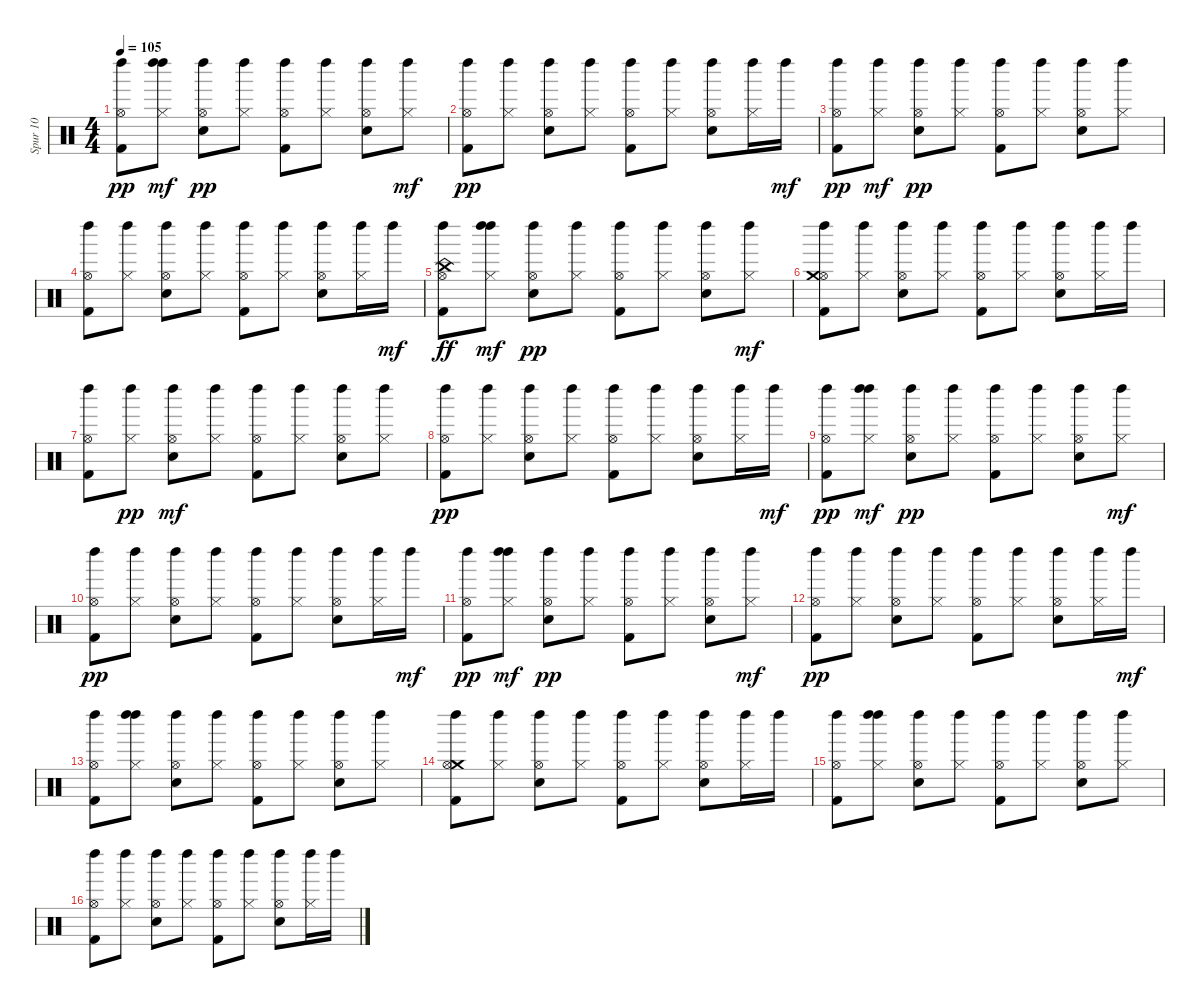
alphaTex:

\track ("Spur 10" "Spur 10") {instrument percussion}
\staff {score}
\articulation defaults
\ts (4 4)
\tempo 105
\clef neutral
\ks c
("Left Maraca (hit)" "Hi-Hat (open)" "Kick (hit) 2").8{dy pp} ("Left Maraca (hit)" "Hi-Hat (closed)" "Left Maraca (hit)").8{dy mf} ("Left Maraca (hit)" "Hi-Hat (open)" "Snare (hit) 2").8{dy pp} ("Left Maraca (hit)" "Hi-Hat (closed)").8 ("Left Maraca (hit)" "Hi-Hat (open)" "Kick (hit) 2").8 ("Left Maraca (hit)" "Hi-Hat (closed)").8 ("Left Maraca (hit)" "Hi-Hat (open)" "Snare (hit) 2").8 ("Hi-Hat (closed)" "Left Maraca (hit)").8{dy mf} |
("Kick (hit) 2" "Left Maraca (hit)" "Hi-Hat (open)").8{dy pp} ("Left Maraca (hit)" "Hi-Hat (closed)").8 ("Snare (hit) 2" "Left Maraca (hit)" "Hi-Hat (open)").8 ("Left Maraca (hit)" "Hi-Hat (closed)").8 ("Kick (hit) 2" "Left Maraca (hit)" "Hi-Hat (open)").8 ("Left Maraca (hit)" "Hi-Hat (closed)").8 ("Snare (hit) 2" "Left Maraca (hit)" "Hi-Hat (open)").8 ("Left Maraca (hit)" "Hi-Hat (closed)").16 "Left Maraca (hit)".16{dy mf} |
("Kick (hit) 2" "Left Maraca (hit)" "Hi-Hat (open)").8{dy pp} ("Hi-Hat (closed)" "Left Maraca (hit)").8{dy mf} ("Snare (hit) 2" "Left Maraca (hit)" "Hi-Hat (open)").8{dy pp} ("Left Maraca (hit)" "Hi-Hat (closed)").8 ("Kick (hit) 2" "Left Maraca (hit)" "Hi-Hat (open)").8 ("Left Maraca (hit)" "Hi-Hat (closed)").8 ("Snare (hit) 2" "Left Maraca (hit)" "Hi-Hat (open)").8 ("Left Maraca (hit)" "Hi-Hat (closed)").8 |
("Left Maraca (hit)" "Kick (hit) 2" "Hi-Hat (open)").8 ("Left Maraca (hit)" "Hi-Hat (closed)").8 ("Left Maraca (hit)" "Snare (hit) 2" "Hi-Hat (open)").8 ("Left Maraca (hit)" "Hi-Hat (closed)").8 ("Left Maraca (hit)" "Kick (hit) 2" "Hi-Hat (open)").8 ("Left Maraca (hit)" "Hi-Hat (closed)").8 ("Left Maraca (hit)" "Snare (hit) 2" "Hi-Hat (open)").8 ("Left Maraca (hit)" "Hi-Hat (closed)").16 "Left Maraca (hit)".16{dy mf} |
("Left Maraca (hit)" "Kick (hit) 2" "Hi-Hat (open)" "China (hit)").8{dy ff} ("Left Maraca (hit)" "Hi-Hat (closed)" "Left Maraca (hit)").8{dy mf} ("Left Maraca (hit)" "Snare (hit) 2" "Hi-Hat (open)").8{dy pp} ("Left Maraca (hit)" "Hi-Hat (closed)").8 ("Left Maraca (hit)" "Kick (hit) 2" "Hi-Hat (open)").8 ("Left Maraca (hit)" "Hi-Hat (closed)").8 ("Left Maraca (hit)" "Snare (hit) 2" "Hi-Hat (open)").8 ("Hi-Hat (closed)" "Left Maraca (hit)").8{dy mf} |
("Kick (hit) 2" "Hi-Hat (open)" "Left Maraca (hit)" "Crash medium (hit)").8 ("Hi-Hat (closed)" "Left Maraca (hit)").8 ("Snare (hit) 2" "Hi-Hat (open)" "Left Maraca (hit)").8 ("Hi-Hat (closed)" "Left Maraca (hit)").8 ("Kick (hit) 2" "Hi-Hat (open)" "Left Maraca (hit)").8 ("Hi-Hat (closed)" "Left Maraca (hit)").8 ("Snare (hit) 2" "Hi-Hat (open)" "Left Maraca (hit)").8 ("Hi-Hat (closed)" "Left Maraca (hit)").16 "Left Maraca (hit)".16 |
("Kick (hit) 2" "Hi-Hat (open)" "Left Maraca (hit)").8 ("Left Maraca (hit)" "Hi-Hat (closed)").8{dy pp} ("Snare (hit) 2" "Hi-Hat (open)" "Left Maraca (hit)").8{dy mf} ("Hi-Hat (closed)" "Left Maraca (hit)").8 ("Kick (hit) 2" "Hi-Hat (open)" "Left Maraca (hit)").8 ("Hi-Hat (closed)" "Left Maraca (hit)").8 ("Snare (hit) 2" "Hi-Hat (open)" "Left Maraca (hit)").8 ("Hi-Hat (closed)" "Left Maraca (hit)").8 |
("Left Maraca (hit)" "Hi-Hat (open)" "Kick (hit) 2").8{dy pp} ("Left Maraca (hit)" "Hi-Hat (closed)").8 ("Left Maraca (hit)" "Hi-Hat (open)" "Snare (hit) 2").8 ("Left Maraca (hit)" "Hi-Hat (closed)").8 ("Left Maraca (hit)" "Hi-Hat (open)" "Kick (hit) 2").8 ("Left Maraca (hit)" "Hi-Hat (closed)").8 ("Left Maraca (hit)" "Hi-Hat (open)" "Snare (hit) 2").8 ("Left Maraca (hit)" "Hi-Hat (closed)").16 "Left Maraca (hit)".16{dy mf} |
("Left Maraca (hit)" "Hi-Hat (open)" "Kick (hit) 2").8{dy pp} ("Left Maraca (hit)" "Hi-Hat (closed)" "Left Maraca (hit)").8{dy mf} ("Left Maraca (hit)" "Hi-Hat (open)" "Snare (hit) 2").8{dy pp} ("Left Maraca (hit)" "Hi-Hat (closed)").8 ("Left Maraca (hit)" "Hi-Hat (open)" "Kick (hit) 2").8 ("Left Maraca (hit)" "Hi-Hat (closed)").8 ("Left Maraca (hit)" "Hi-Hat (open)" "Snare (hit) 2").8 ("Hi-Hat (closed)" "Left Maraca (hit)").8{dy mf} |
("Left Maraca (hit)" "Kick (hit) 2" "Hi-Hat (open)").8{dy pp} ("Left Maraca (hit)" "Hi-Hat (closed)").8 ("Left Maraca (hit)" "Snare (hit) 2" "Hi-Hat (open)").8 ("Left Maraca (hit)" "Hi-Hat (closed)").8 ("Left Maraca (hit)" "Kick (hit) 2" "Hi-Hat (open)").8 ("Left Maraca (hit)" "Hi-Hat (closed)").8 ("Left Maraca (hit)" "Snare (hit) 2" "Hi-Hat (open)").8 ("Left Maraca (hit)" "Hi-Hat (closed)").16 "Left Maraca (hit)".16{dy mf} |
("Left Maraca (hit)" "Kick (hit) 2" "Hi-Hat (open)").8{dy pp} ("Left Maraca (hit)" "Hi-Hat (closed)" "Left Maraca (hit)").8{dy mf} ("Left Maraca (hit)" "Snare (hit) 2" "Hi-Hat (open)").8{dy pp} ("Left Maraca (hit)" "Hi-Hat (closed)").8 ("Left Maraca (hit)" "Kick (hit) 2" "Hi-Hat (open)").8 ("Left Maraca (hit)" "Hi-Hat (closed)").8 ("Left Maraca (hit)" "Snare (hit) 2" "Hi-Hat (open)").8 ("Hi-Hat (closed)" "Left Maraca (hit)").8{dy mf} |
("Left Maraca (hit)" "Kick (hit) 2" "Hi-Hat (open)").8{dy pp} ("Left Maraca (hit)" "Hi-Hat (closed)").8 ("Left Maraca (hit)" "Snare (hit) 2" "Hi-Hat (open)").8 ("Left Maraca (hit)" "Hi-Hat (closed)").8 ("Left Maraca (hit)" "Kick (hit) 2" "Hi-Hat (open)").8 ("Left Maraca (hit)" "Hi-Hat (closed)").8 ("Left Maraca (hit)" "Snare (hit) 2" "Hi-Hat (open)").8 ("Left Maraca (hit)" "Hi-Hat (closed)").16 "Left Maraca (hit)".16{dy mf} |
("Hi-Hat (open)" "Left Maraca (hit)" "Kick (hit) 2").8 ("Hi-Hat (closed)" "Left Maraca (hit)" "Left Maraca (hit)").8 ("Hi-Hat (open)" "Left Maraca (hit)" "Snare (hit) 2").8 ("Hi-Hat (closed)" "Left Maraca (hit)").8 ("Hi-Hat (open)" "Left Maraca (hit)" "Kick (hit) 2").8 ("Hi-Hat (closed)" "Left Maraca (hit)").8 ("Hi-Hat (open)" "Left Maraca (hit)" "Snare (hit) 2").8 ("Hi-Hat (closed)" "Left Maraca (hit)").8 |
("Kick (hit) 2" "Crash medium (hit)" "Hi-Hat (open)" "Left Maraca (hit)").8 ("Hi-Hat (closed)" "Left Maraca (hit)").8 ("Snare (hit) 2" "Hi-Hat (open)" "Left Maraca (hit)").8 ("Hi-Hat (closed)" "Left Maraca (hit)").8 ("Kick (hit) 2" "Hi-Hat (open)" "Left Maraca (hit)").8 ("Hi-Hat (closed)" "Left Maraca (hit)").8 ("Snare (hit) 2" "Hi-Hat (open)" "Left Maraca (hit)").8 ("Hi-Hat (closed)" "Left Maraca (hit)").16 "Left Maraca (hit)".16 |
("Kick (hit) 2" "Hi-Hat (open)" "Left Maraca (hit)").8 ("Hi-Hat (closed)" "Left Maraca (hit)" "Left Maraca (hit)").8 ("Snare (hit) 2" "Hi-Hat (open)" "Left Maraca (hit)").8 ("Hi-Hat (closed)" "Left Maraca (hit)").8 ("Kick (hit) 2" "Hi-Hat (open)" "Left Maraca (hit)").8 ("Hi-Hat (closed)" "Left Maraca (hit)").8 ("Snare (hit) 2" "Hi-Hat (open)" "Left Maraca (hit)").8 ("Hi-Hat (closed)" "Left Maraca (hit)").8 |
("Hi-Hat (open)" "Kick (hit) 2" "Left Maraca (hit)").8 ("Hi-Hat (closed)" "Left Maraca (hit)").8 ("Hi-Hat (open)" "Snare (hit) 2" "Left Maraca (hit)").8 ("Hi-Hat (closed)" "Left Maraca (hit)").8 ("Hi-Hat (open)" "Kick (hit) 2" "Left Maraca (hit)").8 ("Hi-Hat (closed)" "Left Maraca (hit)").8 ("Hi-Hat (open)" "Snare (hit) 2" "Left Maraca (hit)").8 ("Hi-Hat (closed)" "Left Maraca (hit)").16 "Left Maraca (hit)".16
